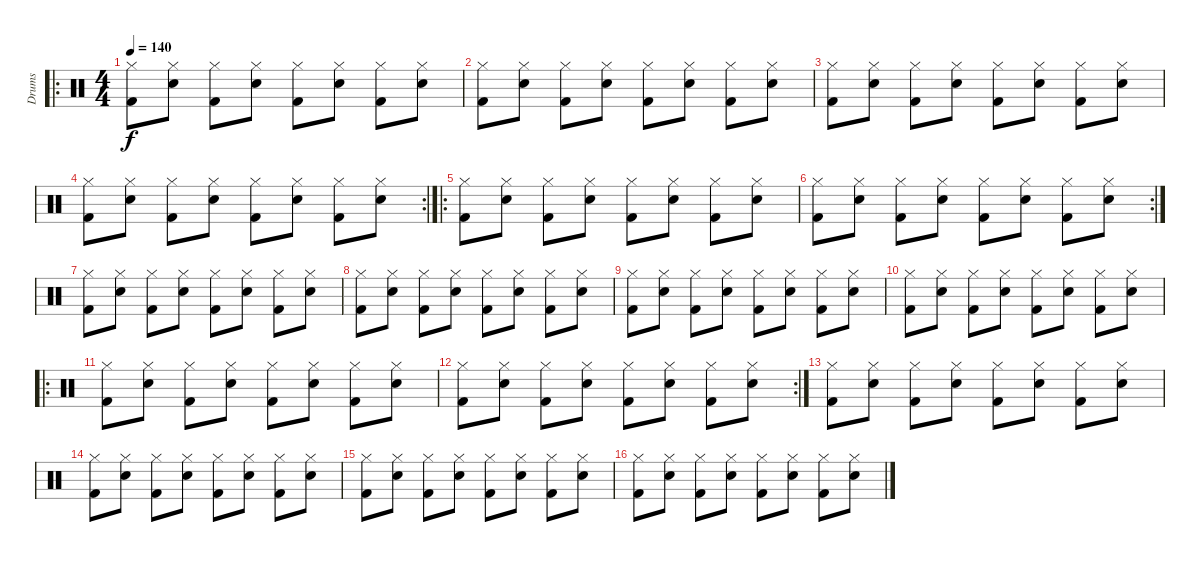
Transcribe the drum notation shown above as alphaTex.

\track ("Drums" "Drums") {instrument percussion}
\staff {score}
\articulation defaults
\ro
\ts (4 4)
\tempo 140
\clef neutral
\ks c
("Hi-Hat (closed)" "Kick (hit) 2").8{dy f} ("Hi-Hat (closed)" "Snare (hit) 2").8 ("Hi-Hat (closed)" "Kick (hit) 2").8 ("Hi-Hat (closed)" "Snare (hit) 2").8 ("Hi-Hat (closed)" "Kick (hit) 2").8 ("Hi-Hat (closed)" "Snare (hit) 2").8 ("Hi-Hat (closed)" "Kick (hit) 2").8 ("Hi-Hat (closed)" "Snare (hit) 2").8 |
("Hi-Hat (closed)" "Kick (hit) 2").8 ("Hi-Hat (closed)" "Snare (hit) 2").8 ("Hi-Hat (closed)" "Kick (hit) 2").8 ("Hi-Hat (closed)" "Snare (hit) 2").8 ("Hi-Hat (closed)" "Kick (hit) 2").8 ("Hi-Hat (closed)" "Snare (hit) 2").8 ("Hi-Hat (closed)" "Kick (hit) 2").8 ("Hi-Hat (closed)" "Snare (hit) 2").8 |
("Hi-Hat (closed)" "Kick (hit) 2").8 ("Hi-Hat (closed)" "Snare (hit) 2").8 ("Hi-Hat (closed)" "Kick (hit) 2").8 ("Hi-Hat (closed)" "Snare (hit) 2").8 ("Hi-Hat (closed)" "Kick (hit) 2").8 ("Hi-Hat (closed)" "Snare (hit) 2").8 ("Hi-Hat (closed)" "Kick (hit) 2").8 ("Hi-Hat (closed)" "Snare (hit) 2").8 |
\rc 2
("Hi-Hat (closed)" "Kick (hit) 2").8 ("Hi-Hat (closed)" "Snare (hit) 2").8 ("Hi-Hat (closed)" "Kick (hit) 2").8 ("Hi-Hat (closed)" "Snare (hit) 2").8 ("Hi-Hat (closed)" "Kick (hit) 2").8 ("Hi-Hat (closed)" "Snare (hit) 2").8 ("Hi-Hat (closed)" "Kick (hit) 2").8 ("Hi-Hat (closed)" "Snare (hit) 2").8 |
\ro
("Hi-Hat (closed)" "Kick (hit) 2").8 ("Hi-Hat (closed)" "Snare (hit) 2").8 ("Hi-Hat (closed)" "Kick (hit) 2").8 ("Hi-Hat (closed)" "Snare (hit) 2").8 ("Hi-Hat (closed)" "Kick (hit) 2").8 ("Hi-Hat (closed)" "Snare (hit) 2").8 ("Hi-Hat (closed)" "Kick (hit) 2").8 ("Hi-Hat (closed)" "Snare (hit) 2").8 |
\rc 2
("Hi-Hat (closed)" "Kick (hit) 2").8 ("Hi-Hat (closed)" "Snare (hit) 2").8 ("Hi-Hat (closed)" "Kick (hit) 2").8 ("Hi-Hat (closed)" "Snare (hit) 2").8 ("Hi-Hat (closed)" "Kick (hit) 2").8 ("Hi-Hat (closed)" "Snare (hit) 2").8 ("Hi-Hat (closed)" "Kick (hit) 2").8 ("Hi-Hat (closed)" "Snare (hit) 2").8 |
("Hi-Hat (closed)" "Kick (hit) 2").8 ("Hi-Hat (closed)" "Snare (hit) 2").8 ("Hi-Hat (closed)" "Kick (hit) 2").8 ("Hi-Hat (closed)" "Snare (hit) 2").8 ("Hi-Hat (closed)" "Kick (hit) 2").8 ("Hi-Hat (closed)" "Snare (hit) 2").8 ("Hi-Hat (closed)" "Kick (hit) 2").8 ("Hi-Hat (closed)" "Snare (hit) 2").8 |
("Hi-Hat (closed)" "Kick (hit) 2").8 ("Hi-Hat (closed)" "Snare (hit) 2").8 ("Hi-Hat (closed)" "Kick (hit) 2").8 ("Hi-Hat (closed)" "Snare (hit) 2").8 ("Hi-Hat (closed)" "Kick (hit) 2").8 ("Hi-Hat (closed)" "Snare (hit) 2").8 ("Hi-Hat (closed)" "Kick (hit) 2").8 ("Hi-Hat (closed)" "Snare (hit) 2").8 |
("Hi-Hat (closed)" "Kick (hit) 2").8 ("Hi-Hat (closed)" "Snare (hit) 2").8 ("Hi-Hat (closed)" "Kick (hit) 2").8 ("Hi-Hat (closed)" "Snare (hit) 2").8 ("Hi-Hat (closed)" "Kick (hit) 2").8 ("Hi-Hat (closed)" "Snare (hit) 2").8 ("Hi-Hat (closed)" "Kick (hit) 2").8 ("Hi-Hat (closed)" "Snare (hit) 2").8 |
("Hi-Hat (closed)" "Kick (hit) 2").8 ("Hi-Hat (closed)" "Snare (hit) 2").8 ("Hi-Hat (closed)" "Kick (hit) 2").8 ("Hi-Hat (closed)" "Snare (hit) 2").8 ("Hi-Hat (closed)" "Kick (hit) 2").8 ("Hi-Hat (closed)" "Snare (hit) 2").8 ("Hi-Hat (closed)" "Kick (hit) 2").8 ("Hi-Hat (closed)" "Snare (hit) 2").8 |
\ro
("Hi-Hat (closed)" "Kick (hit) 2").8 ("Hi-Hat (closed)" "Snare (hit) 2").8 ("Hi-Hat (closed)" "Kick (hit) 2").8 ("Hi-Hat (closed)" "Snare (hit) 2").8 ("Hi-Hat (closed)" "Kick (hit) 2").8 ("Hi-Hat (closed)" "Snare (hit) 2").8 ("Hi-Hat (closed)" "Kick (hit) 2").8 ("Hi-Hat (closed)" "Snare (hit) 2").8 |
\rc 2
("Hi-Hat (closed)" "Kick (hit) 2").8 ("Hi-Hat (closed)" "Snare (hit) 2").8 ("Hi-Hat (closed)" "Kick (hit) 2").8 ("Hi-Hat (closed)" "Snare (hit) 2").8 ("Hi-Hat (closed)" "Kick (hit) 2").8 ("Hi-Hat (closed)" "Snare (hit) 2").8 ("Hi-Hat (closed)" "Kick (hit) 2").8 ("Hi-Hat (closed)" "Snare (hit) 2").8 |
("Hi-Hat (closed)" "Kick (hit) 2").8 ("Hi-Hat (closed)" "Snare (hit) 2").8 ("Hi-Hat (closed)" "Kick (hit) 2").8 ("Hi-Hat (closed)" "Snare (hit) 2").8 ("Hi-Hat (closed)" "Kick (hit) 2").8 ("Hi-Hat (closed)" "Snare (hit) 2").8 ("Hi-Hat (closed)" "Kick (hit) 2").8 ("Hi-Hat (closed)" "Snare (hit) 2").8 |
("Hi-Hat (closed)" "Kick (hit) 2").8 ("Hi-Hat (closed)" "Snare (hit) 2").8 ("Hi-Hat (closed)" "Kick (hit) 2").8 ("Hi-Hat (closed)" "Snare (hit) 2").8 ("Hi-Hat (closed)" "Kick (hit) 2").8 ("Hi-Hat (closed)" "Snare (hit) 2").8 ("Hi-Hat (closed)" "Kick (hit) 2").8 ("Hi-Hat (closed)" "Snare (hit) 2").8 |
("Hi-Hat (closed)" "Kick (hit) 2").8 ("Hi-Hat (closed)" "Snare (hit) 2").8 ("Hi-Hat (closed)" "Kick (hit) 2").8 ("Hi-Hat (closed)" "Snare (hit) 2").8 ("Hi-Hat (closed)" "Kick (hit) 2").8 ("Hi-Hat (closed)" "Snare (hit) 2").8 ("Hi-Hat (closed)" "Kick (hit) 2").8 ("Hi-Hat (closed)" "Snare (hit) 2").8 |
("Hi-Hat (closed)" "Kick (hit) 2").8 ("Hi-Hat (closed)" "Snare (hit) 2").8 ("Hi-Hat (closed)" "Kick (hit) 2").8 ("Hi-Hat (closed)" "Snare (hit) 2").8 ("Hi-Hat (closed)" "Kick (hit) 2").8 ("Hi-Hat (closed)" "Snare (hit) 2").8 ("Hi-Hat (closed)" "Kick (hit) 2").8 ("Hi-Hat (closed)" "Snare (hit) 2").8
